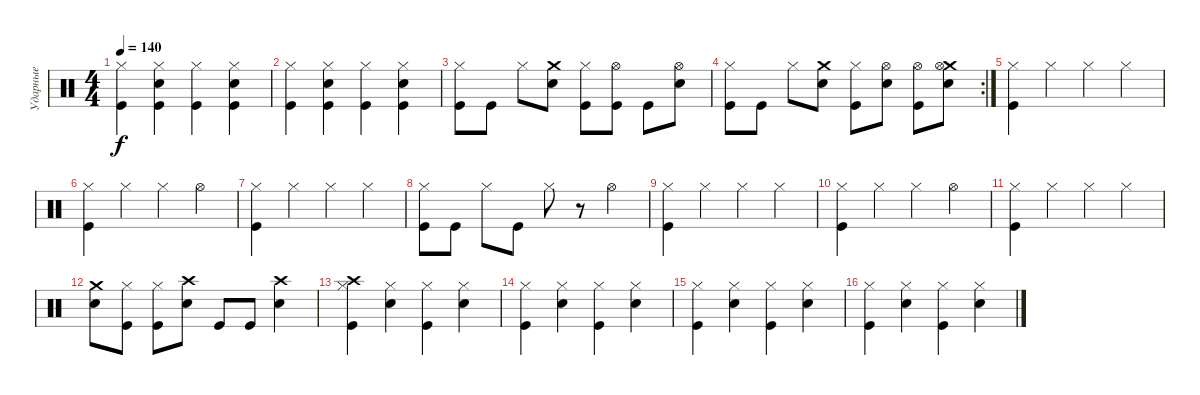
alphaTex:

\track ("Ударные" "Ударные") {instrument percussion}
\staff {score}
\articulation defaults
\ts (4 4)
\tempo 140
\clef neutral
\ks c
("Hi-Hat (closed)" "Kick (hit)").4{dy f} ("Kick (hit)" "Hi-Hat (closed)" "Electric Snare (hit)").4 ("Hi-Hat (closed)" "Kick (hit)").4 ("Kick (hit)" "Hi-Hat (closed)" "Electric Snare (hit)").4 |
("Hi-Hat (closed)" "Kick (hit)").4 ("Kick (hit)" "Hi-Hat (closed)" "Electric Snare (hit)").4 ("Hi-Hat (closed)" "Kick (hit)").4 ("Kick (hit)" "Hi-Hat (closed)" "Electric Snare (hit)").4 |
("Hi-Hat (closed)" "Kick (hit)").8 "Kick (hit)".8 "Hi-Hat (closed)".8 ("Crash medium (hit)" "Electric Snare (hit)").8 ("Hi-Hat (closed)" "Kick (hit)").8 ("Kick (hit)" "Hi-Hat (open)").8 "Kick (hit)".8 ("Electric Snare (hit)" "Hi-Hat (open)").8 |
\rc 2
("Hi-Hat (closed)" "Kick (hit)").8 "Kick (hit)".8 "Hi-Hat (closed)".8 ("Crash medium (hit)" "Electric Snare (hit)").8 ("Hi-Hat (closed)" "Kick (hit)").8 ("Electric Snare (hit)" "Hi-Hat (open)").8 ("Kick (hit)" "Hi-Hat (open)").8 ("Crash medium (hit)" "Electric Snare (hit)" "Hi-Hat (open)").8 |
("Kick (hit)" "Hi-Hat (closed)").4 "Hi-Hat (closed)".4 "Hi-Hat (closed)".4 "Hi-Hat (closed)".4 |
("Hi-Hat (closed)" "Kick (hit)").4 "Hi-Hat (closed)".4 "Hi-Hat (closed)".4 "Hi-Hat (open)".4 |
("Hi-Hat (closed)" "Kick (hit)").4 "Hi-Hat (closed)".4 "Hi-Hat (closed)".4 "Hi-Hat (closed)".4 |
("Hi-Hat (closed)" "Kick (hit)").8 "Kick (hit)".8 "Hi-Hat (closed)".8 "Kick (hit)".8 "Hi-Hat (closed)".8 r.8 "Hi-Hat (open)".4 |
("Hi-Hat (closed)" "Kick (hit)").4 "Hi-Hat (closed)".4 "Hi-Hat (closed)".4 "Hi-Hat (closed)".4 |
("Hi-Hat (closed)" "Kick (hit)").4 "Hi-Hat (closed)".4 "Hi-Hat (closed)".4 "Hi-Hat (open)".4 |
("Hi-Hat (closed)" "Kick (hit)").4 "Hi-Hat (closed)".4 "Hi-Hat (closed)".4 "Hi-Hat (closed)".4 |
("Crash medium (hit)" "Electric Snare (hit)").8 ("Hi-Hat (closed)" "Kick (hit)").8 ("Hi-Hat (closed)" "Kick (hit)").8 ("Crash high (hit)" "Electric Snare (hit)").8 "Kick (hit)".8 "Kick (hit)".8 ("Crash high (hit)" "Electric Snare (hit)").4 |
("Crash high (hit)" "Hi-Hat (closed)" "Kick (hit)").4 ("Hi-Hat (closed)" "Electric Snare (hit)").4 ("Hi-Hat (closed)" "Kick (hit)").4 ("Hi-Hat (closed)" "Electric Snare (hit)").4 |
("Hi-Hat (closed)" "Kick (hit)").4 ("Hi-Hat (closed)" "Electric Snare (hit)").4 ("Hi-Hat (closed)" "Kick (hit)").4 ("Hi-Hat (closed)" "Electric Snare (hit)").4 |
("Hi-Hat (closed)" "Kick (hit)").4 ("Hi-Hat (closed)" "Electric Snare (hit)").4 ("Hi-Hat (closed)" "Kick (hit)").4 ("Hi-Hat (closed)" "Electric Snare (hit)").4 |
("Hi-Hat (closed)" "Kick (hit)").4 ("Hi-Hat (closed)" "Electric Snare (hit)").4 ("Hi-Hat (closed)" "Kick (hit)").4 ("Hi-Hat (closed)" "Electric Snare (hit)").4
